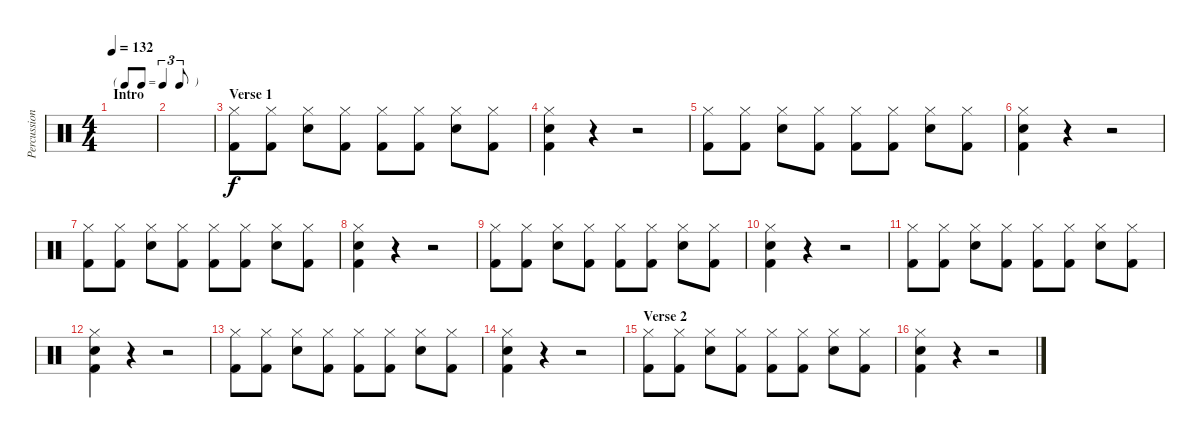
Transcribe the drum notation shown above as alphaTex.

\track ("Percussion" "Percussion") {instrument percussion}
\staff {score}
\articulation defaults
\ts (4 4)
\tf triplet8th
\section ("" "Intro")
\tempo 132
\clef neutral
\ks c
|
|
\section ("" "Verse 1")
("Hi-Hat (closed)" "Kick (hit) 2").8 ("Hi-Hat (closed)" "Kick (hit) 2").8 ("Hi-Hat (closed)" "Electric Snare (hit)").8 ("Hi-Hat (closed)" "Kick (hit) 2").8 ("Hi-Hat (closed)" "Kick (hit) 2").8 ("Hi-Hat (closed)" "Kick (hit) 2").8 ("Hi-Hat (closed)" "Electric Snare (hit)").8 ("Hi-Hat (closed)" "Kick (hit) 2").8 |
("Hi-Hat (closed)" "Electric Snare (hit)" "Kick (hit) 2").4 r.4 r.2 |
("Hi-Hat (closed)" "Kick (hit) 2").8 ("Hi-Hat (closed)" "Kick (hit) 2").8 ("Hi-Hat (closed)" "Electric Snare (hit)").8 ("Hi-Hat (closed)" "Kick (hit) 2").8 ("Hi-Hat (closed)" "Kick (hit) 2").8 ("Hi-Hat (closed)" "Kick (hit) 2").8 ("Hi-Hat (closed)" "Electric Snare (hit)").8 ("Hi-Hat (closed)" "Kick (hit) 2").8 |
("Hi-Hat (closed)" "Electric Snare (hit)" "Kick (hit) 2").4 r.4 r.2 |
("Hi-Hat (closed)" "Kick (hit) 2").8 ("Hi-Hat (closed)" "Kick (hit) 2").8 ("Hi-Hat (closed)" "Electric Snare (hit)").8 ("Hi-Hat (closed)" "Kick (hit) 2").8 ("Hi-Hat (closed)" "Kick (hit) 2").8 ("Hi-Hat (closed)" "Kick (hit) 2").8 ("Hi-Hat (closed)" "Electric Snare (hit)").8 ("Hi-Hat (closed)" "Kick (hit) 2").8 |
("Hi-Hat (closed)" "Electric Snare (hit)" "Kick (hit) 2").4 r.4 r.2 |
("Hi-Hat (closed)" "Kick (hit) 2").8 ("Hi-Hat (closed)" "Kick (hit) 2").8 ("Hi-Hat (closed)" "Electric Snare (hit)").8 ("Hi-Hat (closed)" "Kick (hit) 2").8 ("Hi-Hat (closed)" "Kick (hit) 2").8 ("Hi-Hat (closed)" "Kick (hit) 2").8 ("Hi-Hat (closed)" "Electric Snare (hit)").8 ("Hi-Hat (closed)" "Kick (hit) 2").8 |
("Hi-Hat (closed)" "Electric Snare (hit)" "Kick (hit) 2").4 r.4 r.2 |
("Hi-Hat (closed)" "Kick (hit) 2").8 ("Hi-Hat (closed)" "Kick (hit) 2").8 ("Hi-Hat (closed)" "Electric Snare (hit)").8 ("Hi-Hat (closed)" "Kick (hit) 2").8 ("Hi-Hat (closed)" "Kick (hit) 2").8 ("Hi-Hat (closed)" "Kick (hit) 2").8 ("Hi-Hat (closed)" "Electric Snare (hit)").8 ("Hi-Hat (closed)" "Kick (hit) 2").8 |
("Hi-Hat (closed)" "Electric Snare (hit)" "Kick (hit) 2").4 r.4 r.2 |
("Hi-Hat (closed)" "Kick (hit) 2").8 ("Hi-Hat (closed)" "Kick (hit) 2").8 ("Hi-Hat (closed)" "Electric Snare (hit)").8 ("Hi-Hat (closed)" "Kick (hit) 2").8 ("Hi-Hat (closed)" "Kick (hit) 2").8 ("Hi-Hat (closed)" "Kick (hit) 2").8 ("Hi-Hat (closed)" "Electric Snare (hit)").8 ("Hi-Hat (closed)" "Kick (hit) 2").8 |
("Hi-Hat (closed)" "Electric Snare (hit)" "Kick (hit) 2").4 r.4 r.2 |
\section ("" "Verse 2")
("Hi-Hat (closed)" "Kick (hit) 2").8 ("Hi-Hat (closed)" "Kick (hit) 2").8 ("Hi-Hat (closed)" "Electric Snare (hit)").8 ("Hi-Hat (closed)" "Kick (hit) 2").8 ("Hi-Hat (closed)" "Kick (hit) 2").8 ("Hi-Hat (closed)" "Kick (hit) 2").8 ("Hi-Hat (closed)" "Electric Snare (hit)").8 ("Hi-Hat (closed)" "Kick (hit) 2").8 |
("Hi-Hat (closed)" "Electric Snare (hit)" "Kick (hit) 2").4 r.4 r.2
